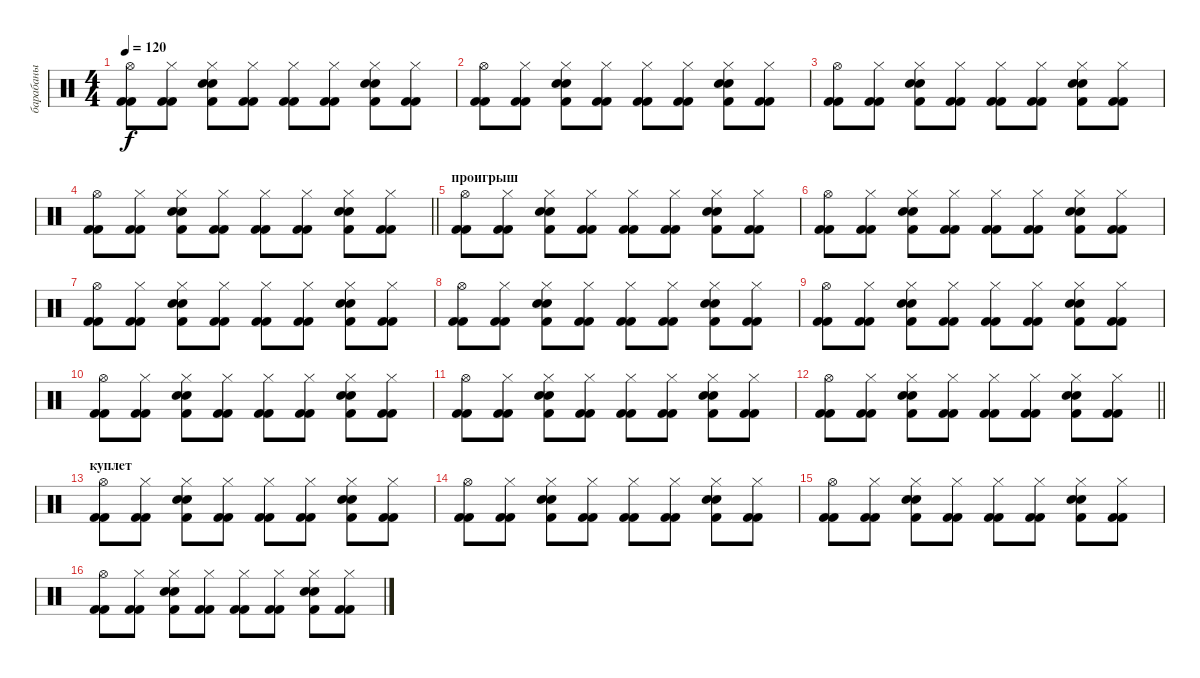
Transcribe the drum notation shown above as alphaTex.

\track ("барабаны" "барабаны") {instrument percussion}
\staff {score}
\articulation defaults
\ts (4 4)
\tempo 120
\clef neutral
\ks c
("Hi-Hat (open)" "Kick (hit) 2" "Kick (hit) 2").8{dy f} ("Hi-Hat (closed)" "Kick (hit) 2" "Kick (hit) 2").8 ("Hi-Hat (closed)" "Snare (hit) 2" "Kick (hit) 2" "Electric Snare (hit)").8 ("Hi-Hat (closed)" "Kick (hit) 2" "Kick (hit) 2").8 ("Hi-Hat (closed)" "Kick (hit) 2" "Kick (hit) 2").8 ("Hi-Hat (closed)" "Kick (hit) 2" "Kick (hit) 2").8 ("Hi-Hat (closed)" "Snare (hit) 2" "Kick (hit) 2" "Electric Snare (hit)").8 ("Hi-Hat (closed)" "Kick (hit) 2" "Kick (hit) 2").8 |
("Hi-Hat (open)" "Kick (hit) 2" "Kick (hit) 2").8 ("Hi-Hat (closed)" "Kick (hit) 2" "Kick (hit) 2").8 ("Hi-Hat (closed)" "Snare (hit) 2" "Kick (hit) 2" "Electric Snare (hit)").8 ("Hi-Hat (closed)" "Kick (hit) 2" "Kick (hit) 2").8 ("Hi-Hat (closed)" "Kick (hit) 2" "Kick (hit) 2").8 ("Hi-Hat (closed)" "Kick (hit) 2" "Kick (hit) 2").8 ("Hi-Hat (closed)" "Snare (hit) 2" "Kick (hit) 2" "Electric Snare (hit)").8 ("Hi-Hat (closed)" "Kick (hit) 2" "Kick (hit) 2").8 |
("Hi-Hat (open)" "Kick (hit) 2" "Kick (hit) 2").8 ("Hi-Hat (closed)" "Kick (hit) 2" "Kick (hit) 2").8 ("Hi-Hat (closed)" "Snare (hit) 2" "Kick (hit) 2" "Electric Snare (hit)").8 ("Hi-Hat (closed)" "Kick (hit) 2" "Kick (hit) 2").8 ("Hi-Hat (closed)" "Kick (hit) 2" "Kick (hit) 2").8 ("Hi-Hat (closed)" "Kick (hit) 2" "Kick (hit) 2").8 ("Hi-Hat (closed)" "Snare (hit) 2" "Kick (hit) 2" "Electric Snare (hit)").8 ("Hi-Hat (closed)" "Kick (hit) 2" "Kick (hit) 2").8 |
\barLineRight lightlight
("Hi-Hat (open)" "Kick (hit) 2" "Kick (hit) 2").8 ("Hi-Hat (closed)" "Kick (hit) 2" "Kick (hit) 2").8 ("Hi-Hat (closed)" "Snare (hit) 2" "Kick (hit) 2" "Electric Snare (hit)").8 ("Hi-Hat (closed)" "Kick (hit) 2" "Kick (hit) 2").8 ("Hi-Hat (closed)" "Kick (hit) 2" "Kick (hit) 2").8 ("Hi-Hat (closed)" "Kick (hit) 2" "Kick (hit) 2").8 ("Hi-Hat (closed)" "Snare (hit) 2" "Kick (hit) 2" "Electric Snare (hit)").8 ("Hi-Hat (closed)" "Kick (hit) 2" "Kick (hit) 2").8 |
\section ("" "проигрыш")
("Hi-Hat (open)" "Kick (hit) 2" "Kick (hit) 2").8 ("Hi-Hat (closed)" "Kick (hit) 2" "Kick (hit) 2").8 ("Hi-Hat (closed)" "Snare (hit) 2" "Kick (hit) 2" "Electric Snare (hit)").8 ("Hi-Hat (closed)" "Kick (hit) 2" "Kick (hit) 2").8 ("Hi-Hat (closed)" "Kick (hit) 2" "Kick (hit) 2").8 ("Hi-Hat (closed)" "Kick (hit) 2" "Kick (hit) 2").8 ("Hi-Hat (closed)" "Snare (hit) 2" "Kick (hit) 2" "Electric Snare (hit)").8 ("Hi-Hat (closed)" "Kick (hit) 2" "Kick (hit) 2").8 |
("Hi-Hat (open)" "Kick (hit) 2" "Kick (hit) 2").8 ("Hi-Hat (closed)" "Kick (hit) 2" "Kick (hit) 2").8 ("Hi-Hat (closed)" "Snare (hit) 2" "Kick (hit) 2" "Electric Snare (hit)").8 ("Hi-Hat (closed)" "Kick (hit) 2" "Kick (hit) 2").8 ("Hi-Hat (closed)" "Kick (hit) 2" "Kick (hit) 2").8 ("Hi-Hat (closed)" "Kick (hit) 2" "Kick (hit) 2").8 ("Hi-Hat (closed)" "Snare (hit) 2" "Kick (hit) 2" "Electric Snare (hit)").8 ("Hi-Hat (closed)" "Kick (hit) 2" "Kick (hit) 2").8 |
("Hi-Hat (open)" "Kick (hit) 2" "Kick (hit) 2").8 ("Hi-Hat (closed)" "Kick (hit) 2" "Kick (hit) 2").8 ("Hi-Hat (closed)" "Snare (hit) 2" "Kick (hit) 2" "Electric Snare (hit)").8 ("Hi-Hat (closed)" "Kick (hit) 2" "Kick (hit) 2").8 ("Hi-Hat (closed)" "Kick (hit) 2" "Kick (hit) 2").8 ("Hi-Hat (closed)" "Kick (hit) 2" "Kick (hit) 2").8 ("Hi-Hat (closed)" "Snare (hit) 2" "Kick (hit) 2" "Electric Snare (hit)").8 ("Hi-Hat (closed)" "Kick (hit) 2" "Kick (hit) 2").8 |
("Hi-Hat (open)" "Kick (hit) 2" "Kick (hit) 2").8 ("Hi-Hat (closed)" "Kick (hit) 2" "Kick (hit) 2").8 ("Hi-Hat (closed)" "Snare (hit) 2" "Kick (hit) 2" "Electric Snare (hit)").8 ("Hi-Hat (closed)" "Kick (hit) 2" "Kick (hit) 2").8 ("Hi-Hat (closed)" "Kick (hit) 2" "Kick (hit) 2").8 ("Hi-Hat (closed)" "Kick (hit) 2" "Kick (hit) 2").8 ("Hi-Hat (closed)" "Snare (hit) 2" "Kick (hit) 2" "Electric Snare (hit)").8 ("Hi-Hat (closed)" "Kick (hit) 2" "Kick (hit) 2").8 |
("Hi-Hat (open)" "Kick (hit) 2" "Kick (hit) 2").8 ("Hi-Hat (closed)" "Kick (hit) 2" "Kick (hit) 2").8 ("Hi-Hat (closed)" "Snare (hit) 2" "Kick (hit) 2" "Electric Snare (hit)").8 ("Hi-Hat (closed)" "Kick (hit) 2" "Kick (hit) 2").8 ("Hi-Hat (closed)" "Kick (hit) 2" "Kick (hit) 2").8 ("Hi-Hat (closed)" "Kick (hit) 2" "Kick (hit) 2").8 ("Hi-Hat (closed)" "Snare (hit) 2" "Kick (hit) 2" "Electric Snare (hit)").8 ("Hi-Hat (closed)" "Kick (hit) 2" "Kick (hit) 2").8 |
("Hi-Hat (open)" "Kick (hit) 2" "Kick (hit) 2").8 ("Hi-Hat (closed)" "Kick (hit) 2" "Kick (hit) 2").8 ("Hi-Hat (closed)" "Snare (hit) 2" "Kick (hit) 2" "Electric Snare (hit)").8 ("Hi-Hat (closed)" "Kick (hit) 2" "Kick (hit) 2").8 ("Hi-Hat (closed)" "Kick (hit) 2" "Kick (hit) 2").8 ("Hi-Hat (closed)" "Kick (hit) 2" "Kick (hit) 2").8 ("Hi-Hat (closed)" "Snare (hit) 2" "Kick (hit) 2" "Electric Snare (hit)").8 ("Hi-Hat (closed)" "Kick (hit) 2" "Kick (hit) 2").8 |
("Hi-Hat (open)" "Kick (hit) 2" "Kick (hit) 2").8 ("Hi-Hat (closed)" "Kick (hit) 2" "Kick (hit) 2").8 ("Hi-Hat (closed)" "Snare (hit) 2" "Kick (hit) 2" "Electric Snare (hit)").8 ("Hi-Hat (closed)" "Kick (hit) 2" "Kick (hit) 2").8 ("Hi-Hat (closed)" "Kick (hit) 2" "Kick (hit) 2").8 ("Hi-Hat (closed)" "Kick (hit) 2" "Kick (hit) 2").8 ("Hi-Hat (closed)" "Snare (hit) 2" "Kick (hit) 2" "Electric Snare (hit)").8 ("Hi-Hat (closed)" "Kick (hit) 2" "Kick (hit) 2").8 |
\barLineRight lightlight
("Hi-Hat (open)" "Kick (hit) 2" "Kick (hit) 2").8 ("Hi-Hat (closed)" "Kick (hit) 2" "Kick (hit) 2").8 ("Hi-Hat (closed)" "Snare (hit) 2" "Kick (hit) 2" "Electric Snare (hit)").8 ("Hi-Hat (closed)" "Kick (hit) 2" "Kick (hit) 2").8 ("Hi-Hat (closed)" "Kick (hit) 2" "Kick (hit) 2").8 ("Hi-Hat (closed)" "Kick (hit) 2" "Kick (hit) 2").8 ("Hi-Hat (closed)" "Snare (hit) 2" "Kick (hit) 2" "Electric Snare (hit)").8 ("Hi-Hat (closed)" "Kick (hit) 2" "Kick (hit) 2").8 |
\section ("" "куплет")
("Hi-Hat (open)" "Kick (hit) 2" "Kick (hit) 2").8 ("Hi-Hat (closed)" "Kick (hit) 2" "Kick (hit) 2").8 ("Hi-Hat (closed)" "Snare (hit) 2" "Kick (hit) 2" "Electric Snare (hit)").8 ("Hi-Hat (closed)" "Kick (hit) 2" "Kick (hit) 2").8 ("Hi-Hat (closed)" "Kick (hit) 2" "Kick (hit) 2").8 ("Hi-Hat (closed)" "Kick (hit) 2" "Kick (hit) 2").8 ("Hi-Hat (closed)" "Snare (hit) 2" "Kick (hit) 2" "Electric Snare (hit)").8 ("Hi-Hat (closed)" "Kick (hit) 2" "Kick (hit) 2").8 |
("Hi-Hat (open)" "Kick (hit) 2" "Kick (hit) 2").8 ("Hi-Hat (closed)" "Kick (hit) 2" "Kick (hit) 2").8 ("Hi-Hat (closed)" "Snare (hit) 2" "Kick (hit) 2" "Electric Snare (hit)").8 ("Hi-Hat (closed)" "Kick (hit) 2" "Kick (hit) 2").8 ("Hi-Hat (closed)" "Kick (hit) 2" "Kick (hit) 2").8 ("Hi-Hat (closed)" "Kick (hit) 2" "Kick (hit) 2").8 ("Hi-Hat (closed)" "Snare (hit) 2" "Kick (hit) 2" "Electric Snare (hit)").8 ("Hi-Hat (closed)" "Kick (hit) 2" "Kick (hit) 2").8 |
("Hi-Hat (open)" "Kick (hit) 2" "Kick (hit) 2").8 ("Hi-Hat (closed)" "Kick (hit) 2" "Kick (hit) 2").8 ("Hi-Hat (closed)" "Snare (hit) 2" "Kick (hit) 2" "Electric Snare (hit)").8 ("Hi-Hat (closed)" "Kick (hit) 2" "Kick (hit) 2").8 ("Hi-Hat (closed)" "Kick (hit) 2" "Kick (hit) 2").8 ("Hi-Hat (closed)" "Kick (hit) 2" "Kick (hit) 2").8 ("Hi-Hat (closed)" "Snare (hit) 2" "Kick (hit) 2" "Electric Snare (hit)").8 ("Hi-Hat (closed)" "Kick (hit) 2" "Kick (hit) 2").8 |
("Hi-Hat (open)" "Kick (hit) 2" "Kick (hit) 2").8 ("Hi-Hat (closed)" "Kick (hit) 2" "Kick (hit) 2").8 ("Hi-Hat (closed)" "Snare (hit) 2" "Kick (hit) 2" "Electric Snare (hit)").8 ("Hi-Hat (closed)" "Kick (hit) 2" "Kick (hit) 2").8 ("Hi-Hat (closed)" "Kick (hit) 2" "Kick (hit) 2").8 ("Hi-Hat (closed)" "Kick (hit) 2" "Kick (hit) 2").8 ("Hi-Hat (closed)" "Snare (hit) 2" "Kick (hit) 2" "Electric Snare (hit)").8 ("Hi-Hat (closed)" "Kick (hit) 2" "Kick (hit) 2").8
